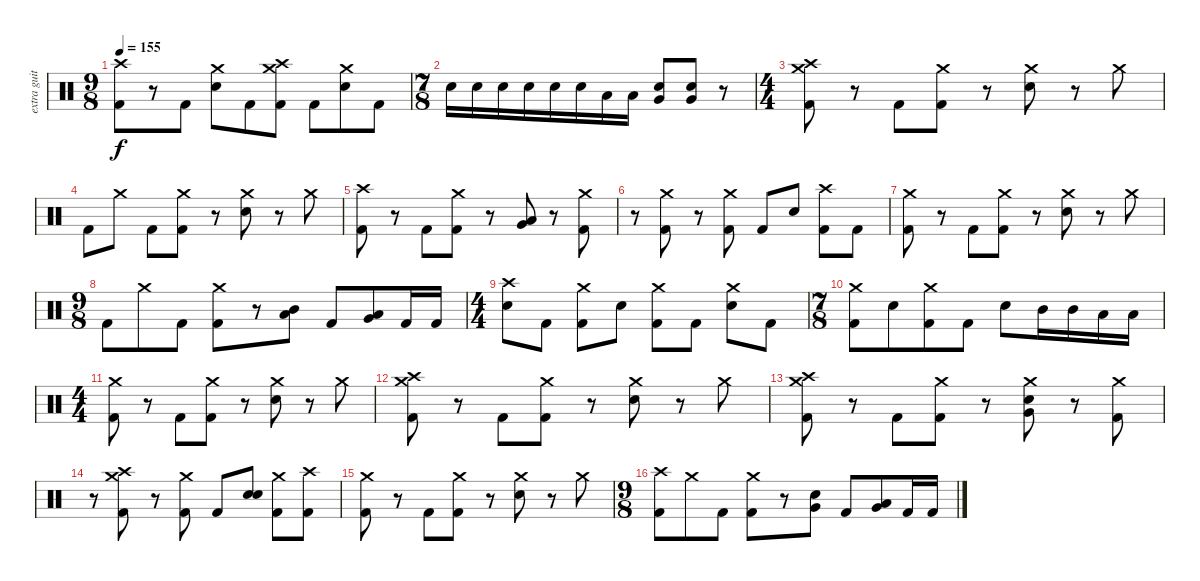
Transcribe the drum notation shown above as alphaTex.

\track ("extra guitar" "extra guit") {instrument percussion}
\staff {score}
\articulation defaults
\ts (9 8)
\tempo 155
\clef neutral
\ks c
("Crash high (hit)" "Kick (hit) 2").8{dy f} r.8 "Kick (hit) 2".8 ("Crash medium (hit)" "Electric Snare (hit)").8 "Kick (hit) 2".8 ("Crash medium (hit)" "Crash high (hit)" "Kick (hit) 2").8 "Kick (hit) 2".8 ("Crash medium (hit)" "Electric Snare (hit)").8 "Kick (hit) 2".8 |
\ts (7 8)
"Electric Snare (hit)".16 "Electric Snare (hit)".16 "Electric Snare (hit)".16 "Electric Snare (hit)".16 "Electric Snare (hit)".16 "Electric Snare (hit)".16 "Low Tom (hit)".16 "Low Tom (hit)".16 ("Electric Snare (hit)" "Very Low Tom (hit)").8 ("Electric Snare (hit)" "Very Low Tom (hit)").8 r.8 |
\ts (4 4)
("Crash medium (hit)" "Crash high (hit)" "Kick (hit) 2").8 r.8 "Kick (hit) 2".8 ("Crash medium (hit)" "Kick (hit) 2").8 r.8 ("Crash medium (hit)" "Electric Snare (hit)").8 r.8 "Crash medium (hit)".8 |
"Kick (hit) 2".8 "Crash medium (hit)".8 "Kick (hit) 2".8 ("Crash medium (hit)" "Kick (hit) 2").8 r.8 ("Crash medium (hit)" "Electric Snare (hit)").8 r.8 "Crash medium (hit)".8 |
("Crash high (hit)" "Kick (hit) 2").8 r.8 "Kick (hit) 2".8 ("Crash medium (hit)" "Kick (hit) 2").8 r.8 ("Low Tom (hit)" "Very Low Tom (hit)").8 r.8 ("Crash medium (hit)" "Kick (hit) 2").8 |
r.8 ("Crash medium (hit)" "Kick (hit) 2").8 r.8 ("Crash medium (hit)" "Kick (hit) 2").8 "Kick (hit) 2".8 "Electric Snare (hit)".8 ("Crash high (hit)" "Kick (hit) 2").8 "Kick (hit) 2".8 |
("Crash medium (hit)" "Kick (hit) 2").8 r.8 "Kick (hit) 2".8 ("Crash medium (hit)" "Kick (hit) 2").8 r.8 ("Crash medium (hit)" "Electric Snare (hit)").8 r.8 "Crash medium (hit)".8 |
\ts (9 8)
"Kick (hit) 2".8 "Crash medium (hit)".8 "Kick (hit) 2".8 ("Crash medium (hit)" "Kick (hit) 2").8 r.8 ("Mid Tom (hit)" "Low Tom (hit)").8 "Kick (hit) 2".8 ("Low Tom (hit)" "Very Low Tom (hit)").8 "Kick (hit) 2".16 "Kick (hit) 2".16 |
\ts (4 4)
("Crash high (hit)" "Electric Snare (hit)").8 "Kick (hit) 2".8 ("Crash medium (hit)" "Kick (hit) 2").8 "Electric Snare (hit)".8 ("Crash medium (hit)" "Kick (hit) 2").8 "Kick (hit) 2".8 ("Crash medium (hit)" "Electric Snare (hit)").8 "Kick (hit) 2".8 |
\ts (7 8)
("Crash medium (hit)" "Kick (hit) 2").8 "Electric Snare (hit)".8 ("Crash medium (hit)" "Kick (hit) 2").8 "Kick (hit) 2".8 "Electric Snare (hit)".8 "Mid Tom (hit)".16 "Mid Tom (hit)".16 "Low Tom (hit)".16 "Low Tom (hit)".16 |
\ts (4 4)
("Crash medium (hit)" "Kick (hit) 2").8 r.8 "Kick (hit) 2".8 ("Crash medium (hit)" "Kick (hit) 2").8 r.8 ("Crash medium (hit)" "Electric Snare (hit)").8 r.8 "Crash medium (hit)".8 |
("Crash medium (hit)" "Crash high (hit)" "Kick (hit) 2").8 r.8 "Kick (hit) 2".8 ("Crash medium (hit)" "Kick (hit) 2").8 r.8 ("Crash medium (hit)" "Electric Snare (hit)").8 r.8 "Crash medium (hit)".8 |
("Crash medium (hit)" "Crash high (hit)" "Kick (hit) 2").8 r.8 "Kick (hit) 2".8 ("Crash medium (hit)" "Kick (hit) 2").8 r.8 ("Crash medium (hit)" "Very Low Tom (hit)" "Electric Snare (hit)").8 r.8 ("Crash medium (hit)" "Kick (hit) 2").8 |
r.8 ("Crash medium (hit)" "Crash high (hit)" "Kick (hit) 2").8 r.8 ("Crash medium (hit)" "Kick (hit) 2").8 "Kick (hit) 2".8 ("Electric Snare (hit)" "Electric Snare (hit)").8 ("Crash medium (hit)" "Kick (hit) 2").8 ("Crash high (hit)" "Kick (hit) 2").8 |
("Crash medium (hit)" "Kick (hit) 2").8 r.8 "Kick (hit) 2".8 ("Crash medium (hit)" "Kick (hit) 2").8 r.8 ("Crash medium (hit)" "Electric Snare (hit)").8 r.8 "Crash medium (hit)".8 |
\ts (9 8)
("Crash high (hit)" "Kick (hit) 2").8 "Crash medium (hit)".8 "Kick (hit) 2".8 ("Crash medium (hit)" "Kick (hit) 2").8 r.8 ("Electric Snare (hit)" "Very Low Tom (hit)").8 "Kick (hit) 2".8 ("Low Tom (hit)" "Very Low Tom (hit)").8 "Kick (hit) 2".16 "Kick (hit) 2".16
